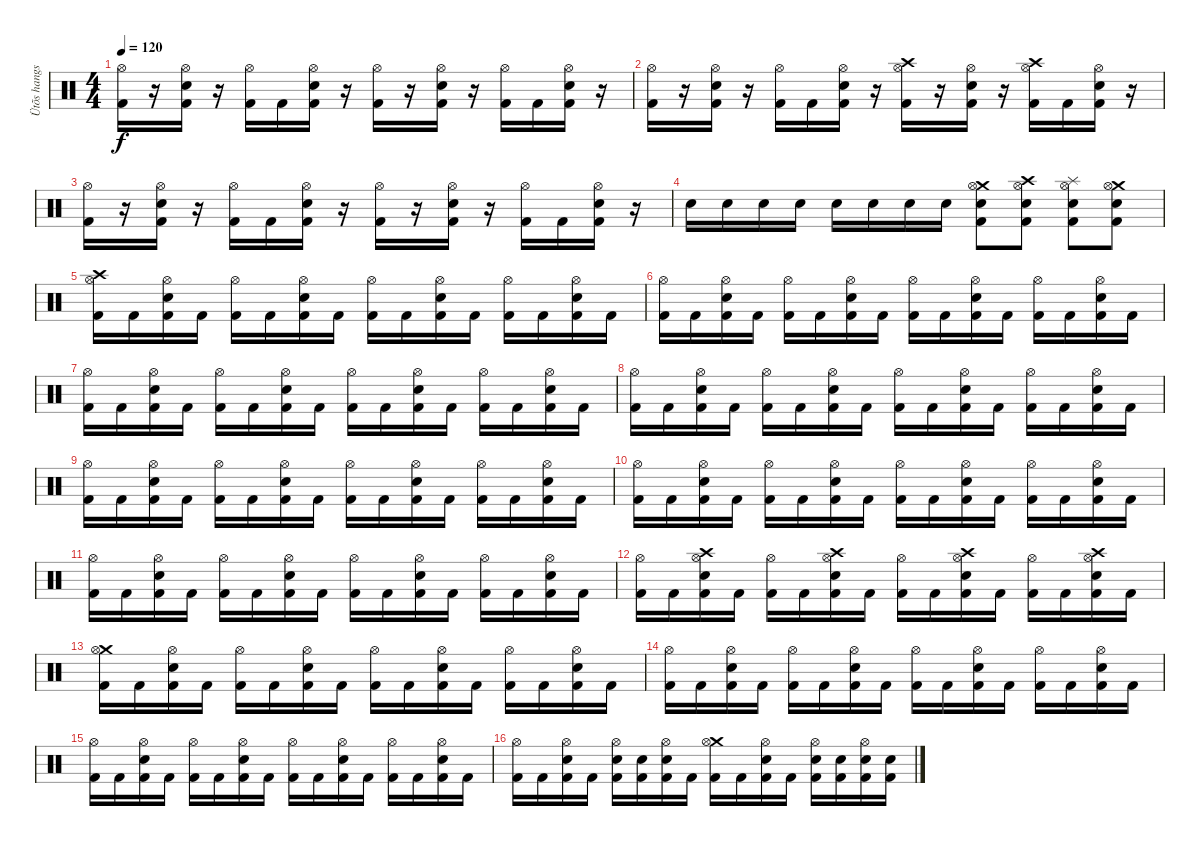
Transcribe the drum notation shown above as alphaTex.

\track ("Ütõs hangszer" "Ütõs hangs") {instrument percussion}
\staff {score}
\articulation defaults
\ts (4 4)
\tempo 120
\clef neutral
\ks c
("Hi-Hat (open)" "Kick (hit) 2").16{dy f} r.16 ("Hi-Hat (open)" "Electric Snare (hit)" "Kick (hit) 2").16 r.16 ("Hi-Hat (open)" "Kick (hit) 2").16 "Kick (hit) 2".16 ("Hi-Hat (open)" "Electric Snare (hit)" "Kick (hit) 2").16 r.16 ("Hi-Hat (open)" "Kick (hit) 2").16 r.16 ("Hi-Hat (open)" "Electric Snare (hit)" "Kick (hit) 2").16 r.16 ("Hi-Hat (open)" "Kick (hit) 2").16 "Kick (hit) 2".16 ("Hi-Hat (open)" "Electric Snare (hit)" "Kick (hit) 2").16 r.16 |
("Hi-Hat (open)" "Kick (hit) 2").16 r.16 ("Hi-Hat (open)" "Electric Snare (hit)" "Kick (hit) 2").16 r.16 ("Hi-Hat (open)" "Kick (hit) 2").16 "Kick (hit) 2".16 ("Hi-Hat (open)" "Electric Snare (hit)" "Kick (hit) 2").16 r.16 ("Crash high (hit)" "Hi-Hat (open)" "Kick (hit) 2").16 r.16 ("Hi-Hat (open)" "Electric Snare (hit)" "Kick (hit) 2").16 r.16 ("Crash high (hit)" "Hi-Hat (open)" "Kick (hit) 2").16 "Kick (hit) 2".16 ("Hi-Hat (open)" "Electric Snare (hit)" "Kick (hit) 2").16 r.16 |
("Hi-Hat (open)" "Kick (hit) 2").16 r.16 ("Hi-Hat (open)" "Electric Snare (hit)" "Kick (hit) 2").16 r.16 ("Hi-Hat (open)" "Kick (hit) 2").16 "Kick (hit) 2".16 ("Hi-Hat (open)" "Electric Snare (hit)" "Kick (hit) 2").16 r.16 ("Hi-Hat (open)" "Kick (hit) 2").16 r.16 ("Hi-Hat (open)" "Electric Snare (hit)" "Kick (hit) 2").16 r.16 ("Hi-Hat (open)" "Kick (hit) 2").16 "Kick (hit) 2".16 ("Hi-Hat (open)" "Electric Snare (hit)" "Kick (hit) 2").16 r.16 |
"Electric Snare (hit)".16 "Electric Snare (hit)".16 "Electric Snare (hit)".16 "Electric Snare (hit)".16 "Electric Snare (hit)".16 "Electric Snare (hit)".16 "Electric Snare (hit)".16 "Electric Snare (hit)".16 ("Crash medium (hit)" "Hi-Hat (open)" "Electric Snare (hit)" "Kick (hit) 2").8 ("Crash high (hit)" "Hi-Hat (open)" "Electric Snare (hit)" "Kick (hit) 2").8 ("Splash (hit)" "Hi-Hat (open)" "Electric Snare (hit)" "Kick (hit) 2").8 ("Crash medium (hit)" "Hi-Hat (open)" "Electric Snare (hit)" "Kick (hit) 2").8 |
("Crash high (hit)" "Hi-Hat (open)" "Kick (hit) 2").16 "Kick (hit) 2".16 ("Hi-Hat (open)" "Electric Snare (hit)" "Kick (hit) 2").16 "Kick (hit) 2".16 ("Hi-Hat (open)" "Kick (hit) 2").16 "Kick (hit) 2".16 ("Hi-Hat (open)" "Electric Snare (hit)" "Kick (hit) 2").16 "Kick (hit) 2".16 ("Hi-Hat (open)" "Kick (hit) 2").16 "Kick (hit) 2".16 ("Hi-Hat (open)" "Electric Snare (hit)" "Kick (hit) 2").16 "Kick (hit) 2".16 ("Hi-Hat (open)" "Kick (hit) 2").16 "Kick (hit) 2".16 ("Hi-Hat (open)" "Electric Snare (hit)" "Kick (hit) 2").16 "Kick (hit) 2".16 |
("Hi-Hat (open)" "Kick (hit) 2").16 "Kick (hit) 2".16 ("Hi-Hat (open)" "Electric Snare (hit)" "Kick (hit) 2").16 "Kick (hit) 2".16 ("Hi-Hat (open)" "Kick (hit) 2").16 "Kick (hit) 2".16 ("Hi-Hat (open)" "Electric Snare (hit)" "Kick (hit) 2").16 "Kick (hit) 2".16 ("Hi-Hat (open)" "Kick (hit) 2").16 "Kick (hit) 2".16 ("Hi-Hat (open)" "Electric Snare (hit)" "Kick (hit) 2").16 "Kick (hit) 2".16 ("Hi-Hat (open)" "Kick (hit) 2").16 "Kick (hit) 2".16 ("Hi-Hat (open)" "Electric Snare (hit)" "Kick (hit) 2").16 "Kick (hit) 2".16 |
("Hi-Hat (open)" "Kick (hit) 2").16 "Kick (hit) 2".16 ("Hi-Hat (open)" "Electric Snare (hit)" "Kick (hit) 2").16 "Kick (hit) 2".16 ("Hi-Hat (open)" "Kick (hit) 2").16 "Kick (hit) 2".16 ("Hi-Hat (open)" "Electric Snare (hit)" "Kick (hit) 2").16 "Kick (hit) 2".16 ("Hi-Hat (open)" "Kick (hit) 2").16 "Kick (hit) 2".16 ("Hi-Hat (open)" "Electric Snare (hit)" "Kick (hit) 2").16 "Kick (hit) 2".16 ("Hi-Hat (open)" "Kick (hit) 2").16 "Kick (hit) 2".16 ("Hi-Hat (open)" "Electric Snare (hit)" "Kick (hit) 2").16 "Kick (hit) 2".16 |
("Hi-Hat (open)" "Kick (hit) 2").16 "Kick (hit) 2".16 ("Hi-Hat (open)" "Electric Snare (hit)" "Kick (hit) 2").16 "Kick (hit) 2".16 ("Hi-Hat (open)" "Kick (hit) 2").16 "Kick (hit) 2".16 ("Hi-Hat (open)" "Electric Snare (hit)" "Kick (hit) 2").16 "Kick (hit) 2".16 ("Hi-Hat (open)" "Kick (hit) 2").16 "Kick (hit) 2".16 ("Hi-Hat (open)" "Electric Snare (hit)" "Kick (hit) 2").16 "Kick (hit) 2".16 ("Hi-Hat (open)" "Kick (hit) 2").16 "Kick (hit) 2".16 ("Hi-Hat (open)" "Electric Snare (hit)" "Kick (hit) 2").16 "Kick (hit) 2".16 |
("Hi-Hat (open)" "Kick (hit) 2").16 "Kick (hit) 2".16 ("Hi-Hat (open)" "Electric Snare (hit)" "Kick (hit) 2").16 "Kick (hit) 2".16 ("Hi-Hat (open)" "Kick (hit) 2").16 "Kick (hit) 2".16 ("Hi-Hat (open)" "Electric Snare (hit)" "Kick (hit) 2").16 "Kick (hit) 2".16 ("Hi-Hat (open)" "Kick (hit) 2").16 "Kick (hit) 2".16 ("Hi-Hat (open)" "Electric Snare (hit)" "Kick (hit) 2").16 "Kick (hit) 2".16 ("Hi-Hat (open)" "Kick (hit) 2").16 "Kick (hit) 2".16 ("Hi-Hat (open)" "Electric Snare (hit)" "Kick (hit) 2").16 "Kick (hit) 2".16 |
("Hi-Hat (open)" "Kick (hit) 2").16 "Kick (hit) 2".16 ("Hi-Hat (open)" "Electric Snare (hit)" "Kick (hit) 2").16 "Kick (hit) 2".16 ("Hi-Hat (open)" "Kick (hit) 2").16 "Kick (hit) 2".16 ("Hi-Hat (open)" "Electric Snare (hit)" "Kick (hit) 2").16 "Kick (hit) 2".16 ("Hi-Hat (open)" "Kick (hit) 2").16 "Kick (hit) 2".16 ("Hi-Hat (open)" "Electric Snare (hit)" "Kick (hit) 2").16 "Kick (hit) 2".16 ("Hi-Hat (open)" "Kick (hit) 2").16 "Kick (hit) 2".16 ("Hi-Hat (open)" "Electric Snare (hit)" "Kick (hit) 2").16 "Kick (hit) 2".16 |
("Hi-Hat (open)" "Kick (hit) 2").16 "Kick (hit) 2".16 ("Hi-Hat (open)" "Electric Snare (hit)" "Kick (hit) 2").16 "Kick (hit) 2".16 ("Hi-Hat (open)" "Kick (hit) 2").16 "Kick (hit) 2".16 ("Hi-Hat (open)" "Electric Snare (hit)" "Kick (hit) 2").16 "Kick (hit) 2".16 ("Hi-Hat (open)" "Kick (hit) 2").16 "Kick (hit) 2".16 ("Hi-Hat (open)" "Electric Snare (hit)" "Kick (hit) 2").16 "Kick (hit) 2".16 ("Hi-Hat (open)" "Kick (hit) 2").16 "Kick (hit) 2".16 ("Hi-Hat (open)" "Electric Snare (hit)" "Kick (hit) 2").16 "Kick (hit) 2".16 |
("Hi-Hat (open)" "Kick (hit) 2").16 "Kick (hit) 2".16 ("Crash high (hit)" "Hi-Hat (open)" "Electric Snare (hit)" "Kick (hit) 2").16 "Kick (hit) 2".16 ("Hi-Hat (open)" "Kick (hit) 2").16 "Kick (hit) 2".16 ("Crash high (hit)" "Hi-Hat (open)" "Electric Snare (hit)" "Kick (hit) 2").16 "Kick (hit) 2".16 ("Hi-Hat (open)" "Kick (hit) 2").16 "Kick (hit) 2".16 ("Crash high (hit)" "Hi-Hat (open)" "Electric Snare (hit)" "Kick (hit) 2").16 "Kick (hit) 2".16 ("Hi-Hat (open)" "Kick (hit) 2").16 "Kick (hit) 2".16 ("Crash high (hit)" "Hi-Hat (open)" "Electric Snare (hit)" "Kick (hit) 2").16 "Kick (hit) 2".16 |
("Crash medium (hit)" "Hi-Hat (open)" "Kick (hit) 2").16 "Kick (hit) 2".16 ("Hi-Hat (open)" "Electric Snare (hit)" "Kick (hit) 2").16 "Kick (hit) 2".16 ("Hi-Hat (open)" "Kick (hit) 2").16 "Kick (hit) 2".16 ("Hi-Hat (open)" "Electric Snare (hit)" "Kick (hit) 2").16 "Kick (hit) 2".16 ("Hi-Hat (open)" "Kick (hit) 2").16 "Kick (hit) 2".16 ("Hi-Hat (open)" "Electric Snare (hit)" "Kick (hit) 2").16 "Kick (hit) 2".16 ("Hi-Hat (open)" "Kick (hit) 2").16 "Kick (hit) 2".16 ("Hi-Hat (open)" "Electric Snare (hit)" "Kick (hit) 2").16 "Kick (hit) 2".16 |
("Hi-Hat (open)" "Kick (hit) 2").16 "Kick (hit) 2".16 ("Hi-Hat (open)" "Electric Snare (hit)" "Kick (hit) 2").16 "Kick (hit) 2".16 ("Hi-Hat (open)" "Kick (hit) 2").16 "Kick (hit) 2".16 ("Hi-Hat (open)" "Electric Snare (hit)" "Kick (hit) 2").16 "Kick (hit) 2".16 ("Hi-Hat (open)" "Kick (hit) 2").16 "Kick (hit) 2".16 ("Hi-Hat (open)" "Electric Snare (hit)" "Kick (hit) 2").16 "Kick (hit) 2".16 ("Hi-Hat (open)" "Kick (hit) 2").16 "Kick (hit) 2".16 ("Hi-Hat (open)" "Electric Snare (hit)" "Kick (hit) 2").16 "Kick (hit) 2".16 |
("Hi-Hat (open)" "Kick (hit) 2").16 "Kick (hit) 2".16 ("Hi-Hat (open)" "Electric Snare (hit)" "Kick (hit) 2").16 "Kick (hit) 2".16 ("Hi-Hat (open)" "Kick (hit) 2").16 "Kick (hit) 2".16 ("Hi-Hat (open)" "Electric Snare (hit)" "Kick (hit) 2").16 "Kick (hit) 2".16 ("Hi-Hat (open)" "Kick (hit) 2").16 "Kick (hit) 2".16 ("Hi-Hat (open)" "Electric Snare (hit)" "Kick (hit) 2").16 "Kick (hit) 2".16 ("Hi-Hat (open)" "Kick (hit) 2").16 "Kick (hit) 2".16 ("Hi-Hat (open)" "Electric Snare (hit)" "Kick (hit) 2").16 "Kick (hit) 2".16 |
("Hi-Hat (open)" "Kick (hit) 2").16 "Kick (hit) 2".16 ("Hi-Hat (open)" "Electric Snare (hit)" "Kick (hit) 2").16 "Kick (hit) 2".16 ("Hi-Hat (open)" "Electric Snare (hit)" "Kick (hit) 2").16 ("Electric Snare (hit)" "Kick (hit) 2").16 ("Hi-Hat (open)" "Electric Snare (hit)" "Kick (hit) 2").16 "Kick (hit) 2".16 ("Crash medium (hit)" "Hi-Hat (open)" "Kick (hit) 2").16 "Kick (hit) 2".16 ("Hi-Hat (open)" "Electric Snare (hit)" "Kick (hit) 2").16 "Kick (hit) 2".16 ("Hi-Hat (open)" "Electric Snare (hit)" "Kick (hit) 2").16 ("Electric Snare (hit)" "Kick (hit) 2").16 ("Hi-Hat (open)" "Electric Snare (hit)" "Kick (hit) 2").16 ("Electric Snare (hit)" "Kick (hit) 2").16
